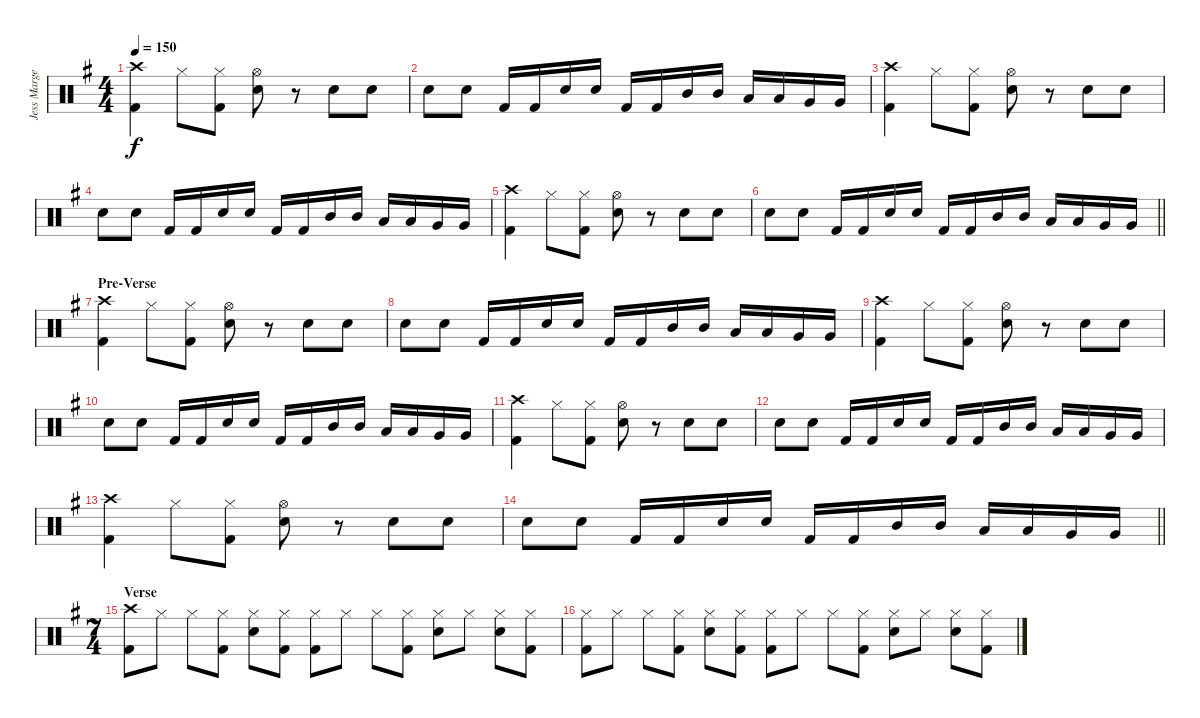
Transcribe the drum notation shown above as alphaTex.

\track ("Jess Margera" "Jess Marge") {instrument percussion}
\staff {score}
\articulation defaults
\ts (4 4)
\tempo 150
\clef neutral
\ks g
("Crash high (hit)" "Kick (hit) 2").4{dy f} "Hi-Hat (closed)".8 ("Hi-Hat (closed)" "Kick (hit) 2").8 ("Hi-Hat (open)" "Electric Snare (hit)").8 r.8 "Electric Snare (hit)".8 "Electric Snare (hit)".8 |
"Electric Snare (hit)".8 "Electric Snare (hit)".8 "Kick (hit) 2".16 "Kick (hit) 2".16 "Electric Snare (hit)".16 "Electric Snare (hit)".16 "Kick (hit) 2".16 "Kick (hit) 2".16 "Mid Tom (hit)".16 "Mid Tom (hit)".16 "Low Tom (hit)".16 "Low Tom (hit)".16 "Very Low Tom (hit)".16 "Very Low Tom (hit)".16 |
("Crash high (hit)" "Kick (hit) 2").4 "Hi-Hat (closed)".8 ("Hi-Hat (closed)" "Kick (hit) 2").8 ("Hi-Hat (open)" "Electric Snare (hit)").8 r.8 "Electric Snare (hit)".8 "Electric Snare (hit)".8 |
"Electric Snare (hit)".8 "Electric Snare (hit)".8 "Kick (hit) 2".16 "Kick (hit) 2".16 "Electric Snare (hit)".16 "Electric Snare (hit)".16 "Kick (hit) 2".16 "Kick (hit) 2".16 "Mid Tom (hit)".16 "Mid Tom (hit)".16 "Low Tom (hit)".16 "Low Tom (hit)".16 "Very Low Tom (hit)".16 "Very Low Tom (hit)".16 |
("Crash high (hit)" "Kick (hit) 2").4 "Hi-Hat (closed)".8 ("Hi-Hat (closed)" "Kick (hit) 2").8 ("Hi-Hat (open)" "Electric Snare (hit)").8 r.8 "Electric Snare (hit)".8 "Electric Snare (hit)".8 |
\barLineRight lightlight "Electric Snare (hit)".8 "Electric Snare (hit)".8 "Kick (hit) 2".16 "Kick (hit) 2".16 "Electric Snare (hit)".16 "Electric Snare (hit)".16 "Kick (hit) 2".16 "Kick (hit) 2".16 "Mid Tom (hit)".16 "Mid Tom (hit)".16 "Low Tom (hit)".16 "Low Tom (hit)".16 "Very Low Tom (hit)".16 "Very Low Tom (hit)".16
|
\section ("" "Pre-Verse")
("Crash high (hit)" "Kick (hit) 2").4 "Hi-Hat (closed)".8 ("Hi-Hat (closed)" "Kick (hit) 2").8 ("Hi-Hat (open)" "Electric Snare (hit)").8 r.8 "Electric Snare (hit)".8 "Electric Snare (hit)".8 |
"Electric Snare (hit)".8 "Electric Snare (hit)".8 "Kick (hit) 2".16 "Kick (hit) 2".16 "Electric Snare (hit)".16 "Electric Snare (hit)".16 "Kick (hit) 2".16 "Kick (hit) 2".16 "Mid Tom (hit)".16 "Mid Tom (hit)".16 "Low Tom (hit)".16 "Low Tom (hit)".16 "Very Low Tom (hit)".16 "Very Low Tom (hit)".16 |
("Crash high (hit)" "Kick (hit) 2").4 "Hi-Hat (closed)".8 ("Hi-Hat (closed)" "Kick (hit) 2").8 ("Hi-Hat (open)" "Electric Snare (hit)").8 r.8 "Electric Snare (hit)".8 "Electric Snare (hit)".8 |
"Electric Snare (hit)".8 "Electric Snare (hit)".8 "Kick (hit) 2".16 "Kick (hit) 2".16 "Electric Snare (hit)".16 "Electric Snare (hit)".16 "Kick (hit) 2".16 "Kick (hit) 2".16 "Mid Tom (hit)".16 "Mid Tom (hit)".16 "Low Tom (hit)".16 "Low Tom (hit)".16 "Very Low Tom (hit)".16 "Very Low Tom (hit)".16 |
("Crash high (hit)" "Kick (hit) 2").4 "Hi-Hat (closed)".8 ("Hi-Hat (closed)" "Kick (hit) 2").8 ("Hi-Hat (open)" "Electric Snare (hit)").8 r.8 "Electric Snare (hit)".8 "Electric Snare (hit)".8 |
"Electric Snare (hit)".8 "Electric Snare (hit)".8 "Kick (hit) 2".16 "Kick (hit) 2".16 "Electric Snare (hit)".16 "Electric Snare (hit)".16 "Kick (hit) 2".16 "Kick (hit) 2".16 "Mid Tom (hit)".16 "Mid Tom (hit)".16 "Low Tom (hit)".16 "Low Tom (hit)".16 "Very Low Tom (hit)".16 "Very Low Tom (hit)".16 |
("Crash high (hit)" "Kick (hit) 2").4 "Hi-Hat (closed)".8 ("Hi-Hat (closed)" "Kick (hit) 2").8 ("Hi-Hat (open)" "Electric Snare (hit)").8 r.8 "Electric Snare (hit)".8 "Electric Snare (hit)".8 |
\barLineRight lightlight "Electric Snare (hit)".8 "Electric Snare (hit)".8 "Kick (hit) 2".16 "Kick (hit) 2".16 "Electric Snare (hit)".16 "Electric Snare (hit)".16 "Kick (hit) 2".16 "Kick (hit) 2".16 "Mid Tom (hit)".16 "Mid Tom (hit)".16 "Low Tom (hit)".16 "Low Tom (hit)".16 "Very Low Tom (hit)".16 "Very Low Tom (hit)".16
|
\ts (7 4)
\section ("" "Verse")
("Crash high (hit)" "Kick (hit) 2").8 "Hi-Hat (closed)".8 "Hi-Hat (closed)".8 ("Hi-Hat (closed)" "Kick (hit) 2").8 ("Hi-Hat (closed)" "Electric Snare (hit)").8 ("Hi-Hat (closed)" "Kick (hit) 2").8 ("Hi-Hat (closed)" "Kick (hit) 2").8 "Hi-Hat (closed)".8 "Hi-Hat (closed)".8 ("Hi-Hat (closed)" "Kick (hit) 2").8 ("Hi-Hat (closed)" "Electric Snare (hit)").8 "Hi-Hat (closed)".8 ("Hi-Hat (closed)" "Electric Snare (hit)").8 ("Hi-Hat (closed)" "Kick (hit) 2").8 |
("Hi-Hat (closed)" "Kick (hit) 2").8 "Hi-Hat (closed)".8 "Hi-Hat (closed)".8 ("Hi-Hat (closed)" "Kick (hit) 2").8 ("Hi-Hat (closed)" "Electric Snare (hit)").8 ("Hi-Hat (closed)" "Kick (hit) 2").8 ("Hi-Hat (closed)" "Kick (hit) 2").8 "Hi-Hat (closed)".8 "Hi-Hat (closed)".8 ("Hi-Hat (closed)" "Kick (hit) 2").8 ("Hi-Hat (closed)" "Electric Snare (hit)").8 "Hi-Hat (closed)".8 ("Hi-Hat (closed)" "Electric Snare (hit)").8 ("Hi-Hat (closed)" "Kick (hit) 2").8
